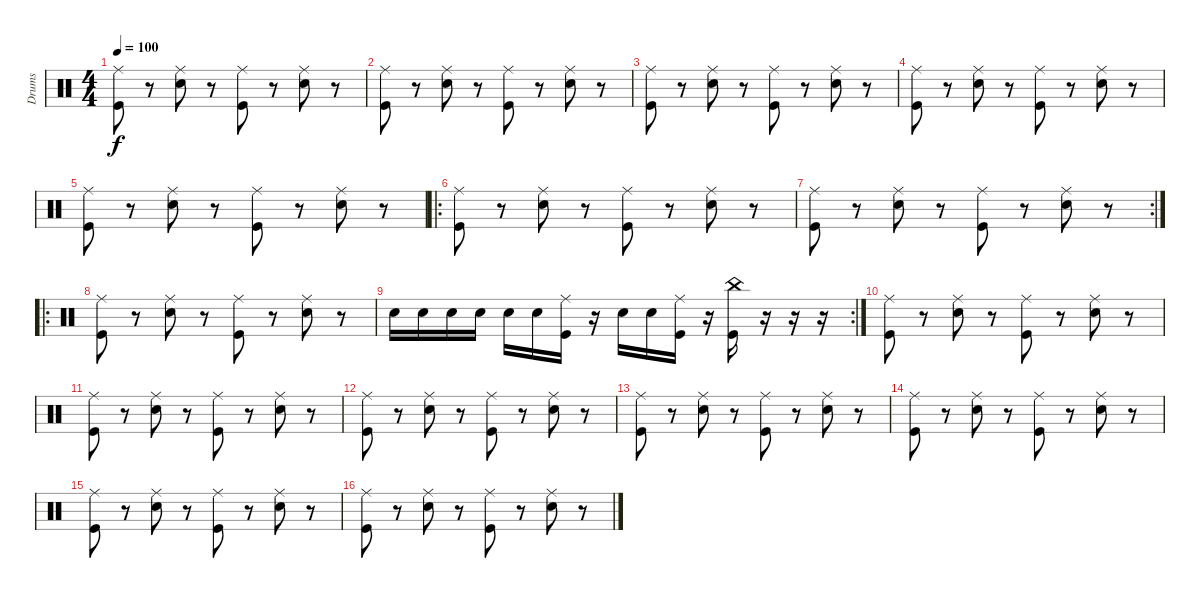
\track ("Drums" "Drums") {instrument percussion}
\staff {score}
\articulation defaults
\ts (4 4)
\tempo 100
\clef neutral
\ks c
("Kick (hit)" "Ride (middle)").8{dy f} r.8 ("Snare (hit) 2" "Ride (middle)").8 r.8 ("Kick (hit)" "Ride (middle)").8 r.8 ("Snare (hit) 2" "Ride (middle)").8 r.8 |
("Kick (hit)" "Ride (middle)").8 r.8 ("Snare (hit) 2" "Ride (middle)").8 r.8 ("Kick (hit)" "Ride (middle)").8 r.8 ("Snare (hit) 2" "Ride (middle)").8 r.8 |
("Kick (hit)" "Ride (middle)").8 r.8 ("Snare (hit) 2" "Ride (middle)").8 r.8 ("Kick (hit)" "Ride (middle)").8 r.8 ("Snare (hit) 2" "Ride (middle)").8 r.8 |
("Kick (hit)" "Ride (middle)").8 r.8 ("Snare (hit) 2" "Ride (middle)").8 r.8 ("Kick (hit)" "Ride (middle)").8 r.8 ("Snare (hit) 2" "Ride (middle)").8 r.8 |
("Kick (hit)" "Ride (middle)").8 r.8 ("Snare (hit) 2" "Ride (middle)").8 r.8 ("Kick (hit)" "Ride (middle)").8 r.8 ("Snare (hit) 2" "Ride (middle)").8 r.8 |
\ro
("Kick (hit)" "Ride (middle)").8 r.8 ("Snare (hit) 2" "Ride (middle)").8 r.8 ("Kick (hit)" "Ride (middle)").8 r.8 ("Snare (hit) 2" "Ride (middle)").8 r.8 |
\rc 2
("Kick (hit)" "Ride (middle)").8 r.8 ("Snare (hit) 2" "Ride (middle)").8 r.8 ("Kick (hit)" "Ride (middle)").8 r.8 ("Snare (hit) 2" "Ride (middle)").8 r.8 |
\ro
("Kick (hit)" "Ride (middle)").8 r.8 ("Snare (hit) 2" "Ride (middle)").8 r.8 ("Kick (hit)" "Ride (middle)").8 r.8 ("Snare (hit) 2" "Ride (middle)").8 r.8 |
\rc 2 "Snare (hit) 2".16 "Snare (hit) 2".16 "Snare (hit) 2".16 "Snare (hit) 2".16 "Snare (hit) 2".16 "Snare (hit) 2".16
("Kick (hit)" "Ride (middle)").16 r.16 "Snare (hit) 2".16 "Snare (hit) 2".16 ("Kick (hit)" "Ride (middle)").16 r.16 ("Kick (hit)" "China (hit)").16 r.16 r.16 r.16 |
("Kick (hit)" "Ride (middle)").8 r.8 ("Snare (hit) 2" "Ride (middle)").8 r.8 ("Kick (hit)" "Ride (middle)").8 r.8 ("Snare (hit) 2" "Ride (middle)").8 r.8 |
("Kick (hit)" "Ride (middle)").8 r.8 ("Snare (hit) 2" "Ride (middle)").8 r.8 ("Kick (hit)" "Ride (middle)").8 r.8 ("Snare (hit) 2" "Ride (middle)").8 r.8 |
("Kick (hit)" "Ride (middle)").8 r.8 ("Snare (hit) 2" "Ride (middle)").8 r.8 ("Kick (hit)" "Ride (middle)").8 r.8 ("Snare (hit) 2" "Ride (middle)").8 r.8 |
("Kick (hit)" "Ride (middle)").8 r.8 ("Snare (hit) 2" "Ride (middle)").8 r.8 ("Kick (hit)" "Ride (middle)").8 r.8 ("Snare (hit) 2" "Ride (middle)").8 r.8 |
("Kick (hit)" "Ride (middle)").8 r.8 ("Snare (hit) 2" "Ride (middle)").8 r.8 ("Kick (hit)" "Ride (middle)").8 r.8 ("Snare (hit) 2" "Ride (middle)").8 r.8 |
("Kick (hit)" "Ride (middle)").8 r.8 ("Snare (hit) 2" "Ride (middle)").8 r.8 ("Kick (hit)" "Ride (middle)").8 r.8 ("Snare (hit) 2" "Ride (middle)").8 r.8 |
("Kick (hit)" "Ride (middle)").8 r.8 ("Snare (hit) 2" "Ride (middle)").8 r.8 ("Kick (hit)" "Ride (middle)").8 r.8 ("Snare (hit) 2" "Ride (middle)").8 r.8
